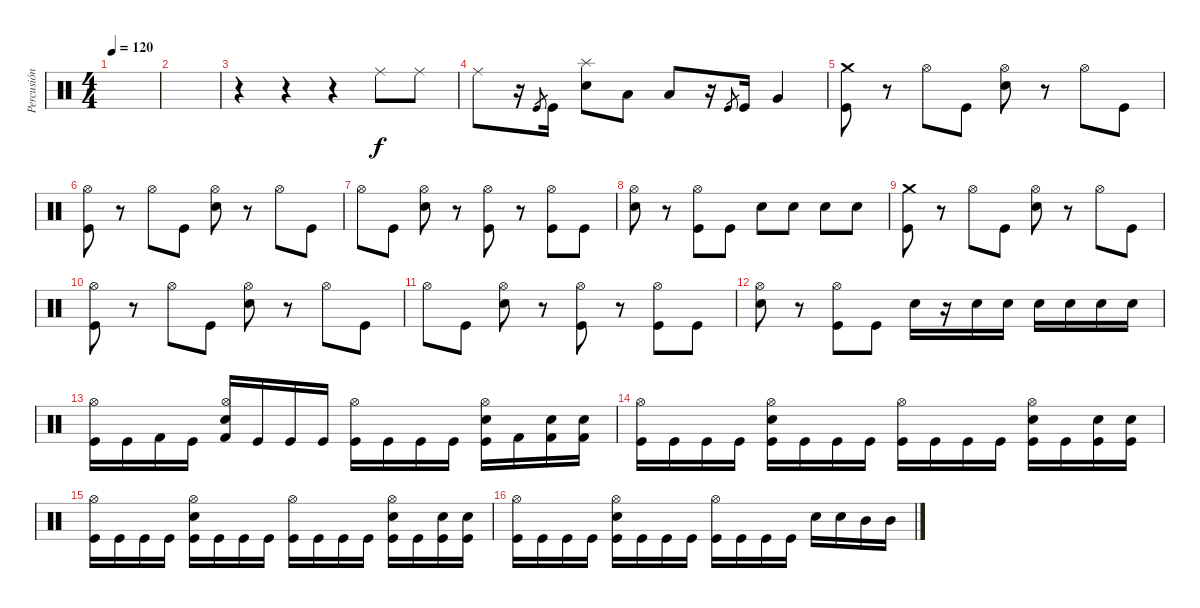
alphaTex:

\track ("Percusión" "Percusión") {instrument percussion}
\staff {score}
\articulation defaults
\ts (4 4)
\tempo 120
\clef neutral
\ks c
|
|
r.4 r.4 r.4 "Ride (middle)".8 "Ride (middle)".8 |
"Ride (middle)".8 r.16 "Kick (hit)".8{gr} "Kick (hit)".16 ("Splash (hit)" "Electric Snare (hit)").8 "Low Tom (hit)".8 "Low Tom (hit)".8 r.16 "Kick (hit)".8{gr} "Kick (hit)".16 "Very Low Tom (hit)".4 |
("Crash medium (hit)" "Kick (hit)").8 r.8 "Hi-Hat (open)".8 "Kick (hit)".8 ("Hi-Hat (open)" "Electric Snare (hit)").8 r.8 "Hi-Hat (open)".8 "Kick (hit)".8 |
("Hi-Hat (open)" "Kick (hit)").8 r.8 "Hi-Hat (open)".8 "Kick (hit)".8 ("Hi-Hat (open)" "Electric Snare (hit)").8 r.8 "Hi-Hat (open)".8 "Kick (hit)".8 |
"Hi-Hat (open)".8 "Kick (hit)".8 ("Hi-Hat (open)" "Electric Snare (hit)").8 r.8 ("Hi-Hat (open)" "Kick (hit)").8 r.8 ("Hi-Hat (open)" "Kick (hit)").8 "Kick (hit)".8 |
("Hi-Hat (open)" "Electric Snare (hit)").8 r.8 ("Hi-Hat (open)" "Kick (hit)").8 "Kick (hit)".8 "Electric Snare (hit)".8 "Electric Snare (hit)".8 "Electric Snare (hit)".8 "Electric Snare (hit)".8 |
("Crash medium (hit)" "Kick (hit)").8 r.8 "Hi-Hat (open)".8 "Kick (hit)".8 ("Hi-Hat (open)" "Electric Snare (hit)").8 r.8 "Hi-Hat (open)".8 "Kick (hit)".8 |
("Hi-Hat (open)" "Kick (hit)").8 r.8 "Hi-Hat (open)".8 "Kick (hit)".8 ("Hi-Hat (open)" "Electric Snare (hit)").8 r.8 "Hi-Hat (open)".8 "Kick (hit)".8 |
"Hi-Hat (open)".8 "Kick (hit)".8 ("Hi-Hat (open)" "Electric Snare (hit)").8 r.8 ("Hi-Hat (open)" "Kick (hit)").8 r.8 ("Hi-Hat (open)" "Kick (hit)").8 "Kick (hit)".8 |
("Hi-Hat (open)" "Electric Snare (hit)").8 r.8 ("Hi-Hat (open)" "Kick (hit)").8 "Kick (hit)".8 "Electric Snare (hit)".16 r.16 "Electric Snare (hit)".16 "Electric Snare (hit)".16 "Electric Snare (hit)".16 "Electric Snare (hit)".16 "Electric Snare (hit)".16 "Electric Snare (hit)".16 |
("Hi-Hat (open)" "Kick (hit)").16 "Kick (hit)".16 "Kick (hit) 2".16 "Kick (hit)".16 ("Hi-Hat (open)" "Electric Snare (hit)" "Kick (hit) 2").16 "Kick (hit)".16 "Kick (hit)".16 "Kick (hit)".16 ("Hi-Hat (open)" "Kick (hit)").16 "Kick (hit)".16 "Kick (hit)".16 "Kick (hit)".16 ("Hi-Hat (open)" "Electric Snare (hit)" "Kick (hit)").16 "Kick (hit) 2".16 ("Electric Snare (hit)" "Kick (hit) 2").16 ("Electric Snare (hit)" "Kick (hit) 2").16 |
("Hi-Hat (open)" "Kick (hit)").16 "Kick (hit)".16 "Kick (hit)".16 "Kick (hit)".16 ("Hi-Hat (open)" "Electric Snare (hit)" "Kick (hit)").16 "Kick (hit)".16 "Kick (hit)".16 "Kick (hit)".16 ("Hi-Hat (open)" "Kick (hit)").16 "Kick (hit)".16 "Kick (hit)".16 "Kick (hit)".16 ("Hi-Hat (open)" "Electric Snare (hit)" "Kick (hit)").16 "Kick (hit)".16 ("Electric Snare (hit)" "Kick (hit)").16 ("Electric Snare (hit)" "Kick (hit)").16 |
("Hi-Hat (open)" "Kick (hit)").16 "Kick (hit)".16 "Kick (hit)".16 "Kick (hit)".16 ("Hi-Hat (open)" "Electric Snare (hit)" "Kick (hit)").16 "Kick (hit)".16 "Kick (hit)".16 "Kick (hit)".16 ("Hi-Hat (open)" "Kick (hit)").16 "Kick (hit)".16 "Kick (hit)".16 "Kick (hit)".16 ("Hi-Hat (open)" "Electric Snare (hit)" "Kick (hit)").16 "Kick (hit)".16 ("Electric Snare (hit)" "Kick (hit)").16 ("Electric Snare (hit)" "Kick (hit)").16 |
("Hi-Hat (open)" "Kick (hit)").16 "Kick (hit)".16 "Kick (hit)".16 "Kick (hit)".16 ("Hi-Hat (open)" "Electric Snare (hit)" "Kick (hit)").16 "Kick (hit)".16 "Kick (hit)".16 "Kick (hit)".16 ("Hi-Hat (open)" "Kick (hit)").16 "Kick (hit)".16 "Kick (hit)".16 "Kick (hit)".16 "Electric Snare (hit)".16 "Electric Snare (hit)".16 "Mid Tom (hit)".16 "Mid Tom (hit)".16
